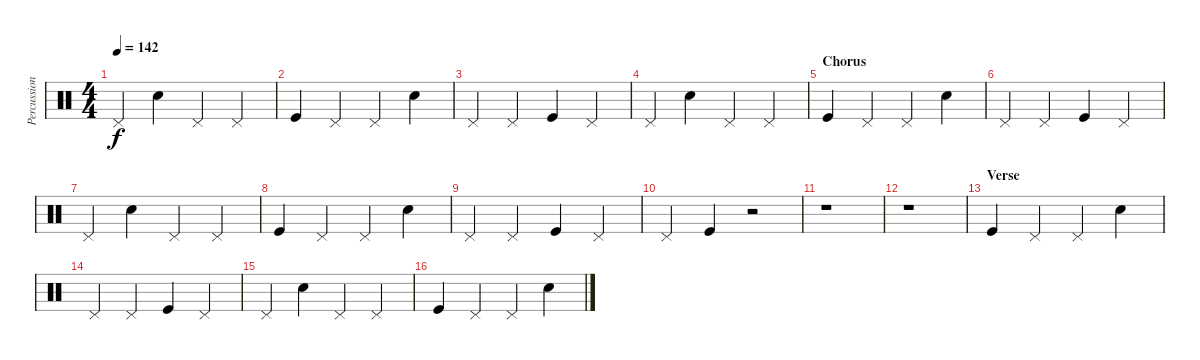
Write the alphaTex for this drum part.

\track ("Percussion" "Percussion") {instrument percussion}
\staff {score}
\articulation defaults
\ts (4 4)
\tempo 142
\clef neutral
\ks c "Pedal Hi-Hat (hit)".4{dy f} "Electric Snare (hit)".4 "Pedal Hi-Hat (hit)".4 "Pedal Hi-Hat (hit)".4
|
"Kick (hit)".4 "Pedal Hi-Hat (hit)".4 "Pedal Hi-Hat (hit)".4 "Electric Snare (hit)".4 |
"Pedal Hi-Hat (hit)".4 "Pedal Hi-Hat (hit)".4 "Kick (hit)".4 "Pedal Hi-Hat (hit)".4 |
"Pedal Hi-Hat (hit)".4 "Electric Snare (hit)".4 "Pedal Hi-Hat (hit)".4 "Pedal Hi-Hat (hit)".4 |
\section ("" "Chorus")
"Kick (hit)".4 "Pedal Hi-Hat (hit)".4 "Pedal Hi-Hat (hit)".4 "Electric Snare (hit)".4 |
"Pedal Hi-Hat (hit)".4 "Pedal Hi-Hat (hit)".4 "Kick (hit)".4 "Pedal Hi-Hat (hit)".4 |
"Pedal Hi-Hat (hit)".4 "Electric Snare (hit)".4 "Pedal Hi-Hat (hit)".4 "Pedal Hi-Hat (hit)".4 |
"Kick (hit)".4 "Pedal Hi-Hat (hit)".4 "Pedal Hi-Hat (hit)".4 "Electric Snare (hit)".4 |
"Pedal Hi-Hat (hit)".4 "Pedal Hi-Hat (hit)".4 "Kick (hit)".4 "Pedal Hi-Hat (hit)".4 |
"Pedal Hi-Hat (hit)".4 "Kick (hit)".4 r.2 |
r.1 |
r.1 |
\section ("" "Verse")
"Kick (hit)".4 "Pedal Hi-Hat (hit)".4 "Pedal Hi-Hat (hit)".4 "Electric Snare (hit)".4 |
"Pedal Hi-Hat (hit)".4 "Pedal Hi-Hat (hit)".4 "Kick (hit)".4 "Pedal Hi-Hat (hit)".4 |
"Pedal Hi-Hat (hit)".4 "Electric Snare (hit)".4 "Pedal Hi-Hat (hit)".4 "Pedal Hi-Hat (hit)".4 |
"Kick (hit)".4 "Pedal Hi-Hat (hit)".4 "Pedal Hi-Hat (hit)".4 "Electric Snare (hit)".4
